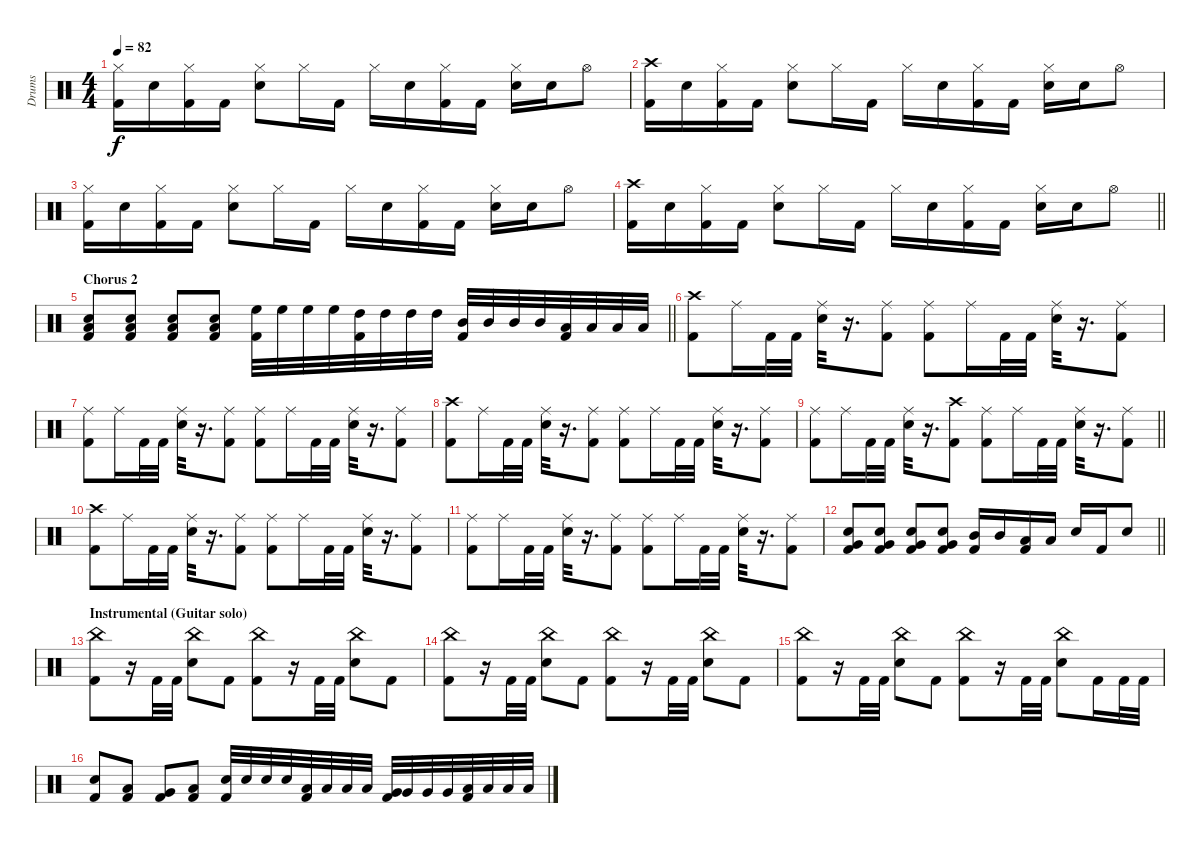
\track ("Drums" "Drums") {instrument percussion}
\staff {score}
\articulation defaults
\ts (4 4)
\tempo 82
\clef neutral
\ks c
("Hi-Hat (closed)" "Kick (hit) 2").16{dy f} "Snare (hit) 2".16 ("Hi-Hat (closed)" "Kick (hit) 2").16 "Kick (hit) 2".16 ("Hi-Hat (closed)" "Snare (hit) 2").8 "Hi-Hat (closed)".16 "Kick (hit) 2".16 "Hi-Hat (closed)".16 "Snare (hit) 2".16 ("Hi-Hat (closed)" "Kick (hit) 2").16 "Kick (hit) 2".16 ("Hi-Hat (closed)" "Snare (hit) 2").16 "Snare (hit) 2".16 "Hi-Hat (open)".8 |
("Crash high (hit)" "Kick (hit) 2").16 "Snare (hit) 2".16 ("Hi-Hat (closed)" "Kick (hit) 2").16 "Kick (hit) 2".16 ("Hi-Hat (closed)" "Snare (hit) 2").8 "Hi-Hat (closed)".16 "Kick (hit) 2".16 "Hi-Hat (closed)".16 "Snare (hit) 2".16 ("Hi-Hat (closed)" "Kick (hit) 2").16 "Kick (hit) 2".16 ("Hi-Hat (closed)" "Snare (hit) 2").16 "Snare (hit) 2".16 "Hi-Hat (open)".8 |
("Hi-Hat (closed)" "Kick (hit) 2").16 "Snare (hit) 2".16 ("Hi-Hat (closed)" "Kick (hit) 2").16 "Kick (hit) 2".16 ("Hi-Hat (closed)" "Snare (hit) 2").8 "Hi-Hat (closed)".16 "Kick (hit) 2".16 "Hi-Hat (closed)".16 "Snare (hit) 2".16 ("Hi-Hat (closed)" "Kick (hit) 2").16 "Kick (hit) 2".16 ("Hi-Hat (closed)" "Snare (hit) 2").16 "Snare (hit) 2".16 "Hi-Hat (open)".8 |
\barLineRight lightlight
("Crash high (hit)" "Kick (hit) 2").16 "Snare (hit) 2".16 ("Hi-Hat (closed)" "Kick (hit) 2").16 "Kick (hit) 2".16 ("Hi-Hat (closed)" "Snare (hit) 2").8 "Hi-Hat (closed)".16 "Kick (hit) 2".16 "Hi-Hat (closed)".16 "Snare (hit) 2".16 ("Hi-Hat (closed)" "Kick (hit) 2").16 "Kick (hit) 2".16 ("Hi-Hat (closed)" "Snare (hit) 2").16 "Snare (hit) 2".16 "Hi-Hat (open)".8{volume 7} |
\section ("" "Chorus 2")
\barLineRight lightlight
("Low Floor Tom (hit)" "Electric Snare (hit)" "Kick (hit) 2").8{volume 16} ("Low Floor Tom (hit)" "Electric Snare (hit)" "Kick (hit) 2").8 ("Low Floor Tom (hit)" "Electric Snare (hit)" "Kick (hit) 2").8 ("Low Floor Tom (hit)" "Electric Snare (hit)" "Kick (hit) 2").8 ("High Floor Tom (hit)" "Kick (hit) 2").32 "High Floor Tom (hit)".32 "High Floor Tom (hit)".32 "High Floor Tom (hit)".32 ("High Tom (hit)" "Kick (hit) 2").32 "High Tom (hit)".32 "High Tom (hit)".32 "High Tom (hit)".32 ("Mid Tom (hit)" "Kick (hit) 2").32 "Mid Tom (hit)".32 "Mid Tom (hit)".32 "Mid Tom (hit)".32 ("Kick (hit) 2" "Low Tom (hit)").32 "Low Tom (hit)".32 "Low Tom (hit)".32 "Low Tom (hit)".32 |
("Crash high (hit)" "Kick (hit) 2").8 "Ride (middle)".16 "Kick (hit) 2".32 "Kick (hit) 2".32 ("Ride (middle)" "Electric Snare (hit)").32 r.16{d} ("Ride (middle)" "Kick (hit) 2").8 ("Ride (middle)" "Kick (hit) 2").8 "Ride (middle)".16 "Kick (hit) 2".32 "Kick (hit) 2".32 ("Ride (middle)" "Electric Snare (hit)").32 r.16{d} ("Ride (middle)" "Kick (hit) 2").8 |
("Ride (middle)" "Kick (hit) 2").8 "Ride (middle)".16 "Kick (hit) 2".32 "Kick (hit) 2".32 ("Ride (middle)" "Electric Snare (hit)").32 r.16{d} ("Ride (middle)" "Kick (hit) 2").8 ("Ride (middle)" "Kick (hit) 2").8 "Ride (middle)".16 "Kick (hit) 2".32 "Kick (hit) 2".32 ("Ride (middle)" "Electric Snare (hit)").32 r.16{d} ("Ride (middle)" "Kick (hit) 2").8 |
("Crash high (hit)" "Kick (hit) 2").8 "Ride (middle)".16 "Kick (hit) 2".32 "Kick (hit) 2".32 ("Ride (middle)" "Electric Snare (hit)").32 r.16{d} ("Ride (middle)" "Kick (hit) 2").8 ("Ride (middle)" "Kick (hit) 2").8 "Ride (middle)".16 "Kick (hit) 2".32 "Kick (hit) 2".32 ("Ride (middle)" "Electric Snare (hit)").32 r.16{d} ("Ride (middle)" "Kick (hit) 2").8 |
\barLineRight lightlight
("Ride (middle)" "Kick (hit) 2").8 "Ride (middle)".16 "Kick (hit) 2".32 "Kick (hit) 2".32 ("Ride (middle)" "Electric Snare (hit)").32 r.16{d} ("Crash high (hit)" "Kick (hit) 2").8 ("Ride (middle)" "Kick (hit) 2").8 "Ride (middle)".16 "Kick (hit) 2".32 "Kick (hit) 2".32 ("Ride (middle)" "Electric Snare (hit)").32 r.16{d} ("Ride (middle)" "Kick (hit) 2").8 |
("Crash high (hit)" "Kick (hit) 2").8 "Ride (middle)".16 "Kick (hit) 2".32 "Kick (hit) 2".32 ("Ride (middle)" "Electric Snare (hit)").32 r.16{d} ("Ride (middle)" "Kick (hit) 2").8 ("Ride (middle)" "Kick (hit) 2").8 "Ride (middle)".16 "Kick (hit) 2".32 "Kick (hit) 2".32 ("Ride (middle)" "Electric Snare (hit)").32 r.16{d} ("Ride (middle)" "Kick (hit) 2").8 |
("Ride (middle)" "Kick (hit) 2").8 "Ride (middle)".16 "Kick (hit) 2".32 "Kick (hit) 2".32 ("Ride (middle)" "Electric Snare (hit)").32 r.16{d} ("Ride (middle)" "Kick (hit) 2").8 ("Ride (middle)" "Kick (hit) 2").8 "Ride (middle)".16 "Kick (hit) 2".32 "Kick (hit) 2".32 ("Ride (middle)" "Electric Snare (hit)").32 r.16{d} ("Ride (middle)" "Kick (hit) 2").8 |
\barLineRight lightlight
("Electric Snare (hit)" "Very Low Tom (hit)" "Kick (hit) 2").8 ("Electric Snare (hit)" "Very Low Tom (hit)" "Kick (hit) 2").8 ("Electric Snare (hit)" "Very Low Tom (hit)" "Kick (hit) 2").8 ("Electric Snare (hit)" "Very Low Tom (hit)" "Kick (hit) 2").8 ("Mid Tom (hit)" "Kick (hit) 2").16 "Mid Tom (hit)".16 ("Low Tom (hit)" "Kick (hit) 2").16 "Low Tom (hit)".16 "Electric Snare (hit)".16 "Kick (hit) 2".16 "Electric Snare (hit)".8 |
\section ("" "Instrumental (Guitar solo)")
("China (hit)" "Kick (hit) 2").8 r.16 "Kick (hit) 2".32 "Kick (hit) 2".32 ("China (hit)" "Electric Snare (hit)").8 "Kick (hit) 2".8 ("China (hit)" "Kick (hit) 2").8 r.16 "Kick (hit) 2".32 "Kick (hit) 2".32 ("China (hit)" "Electric Snare (hit)").8 "Kick (hit) 2".8 |
("China (hit)" "Kick (hit) 2").8 r.16 "Kick (hit) 2".32 "Kick (hit) 2".32 ("China (hit)" "Electric Snare (hit)").8 "Kick (hit) 2".8 ("China (hit)" "Kick (hit) 2").8 r.16 "Kick (hit) 2".32 "Kick (hit) 2".32 ("China (hit)" "Electric Snare (hit)").8 "Kick (hit) 2".8 |
("China (hit)" "Kick (hit) 2").8 r.16 "Kick (hit) 2".32 "Kick (hit) 2".32 ("China (hit)" "Electric Snare (hit)").8 "Kick (hit) 2".8 ("China (hit)" "Kick (hit) 2").8 r.16 "Kick (hit) 2".32 "Kick (hit) 2".32 ("China (hit)" "Electric Snare (hit)").8 "Kick (hit) 2".16 "Kick (hit) 2".32 "Kick (hit) 2".32 |
("Electric Snare (hit)" "Kick (hit) 2").8 ("Low Tom (hit)" "Kick (hit) 2").8 ("Very Low Tom (hit)" "Kick (hit) 2").8 ("Low Floor Tom (hit)" "Kick (hit) 2").8 ("Electric Snare (hit)" "Kick (hit) 2").32 "Electric Snare (hit)".32 "Electric Snare (hit)".32 "Electric Snare (hit)".32 ("Low Tom (hit)" "Kick (hit) 2").32 "Low Tom (hit)".32 "Low Tom (hit)".32 "Low Tom (hit)".32 ("Very Low Tom (hit)" "Kick (hit) 2").32 "Very Low Tom (hit)".32 "Very Low Tom (hit)".32 "Very Low Tom (hit)".32 ("Low Floor Tom (hit)" "Kick (hit) 2").32 "Low Floor Tom (hit)".32 "Low Floor Tom (hit)".32 "Low Floor Tom (hit)".32
